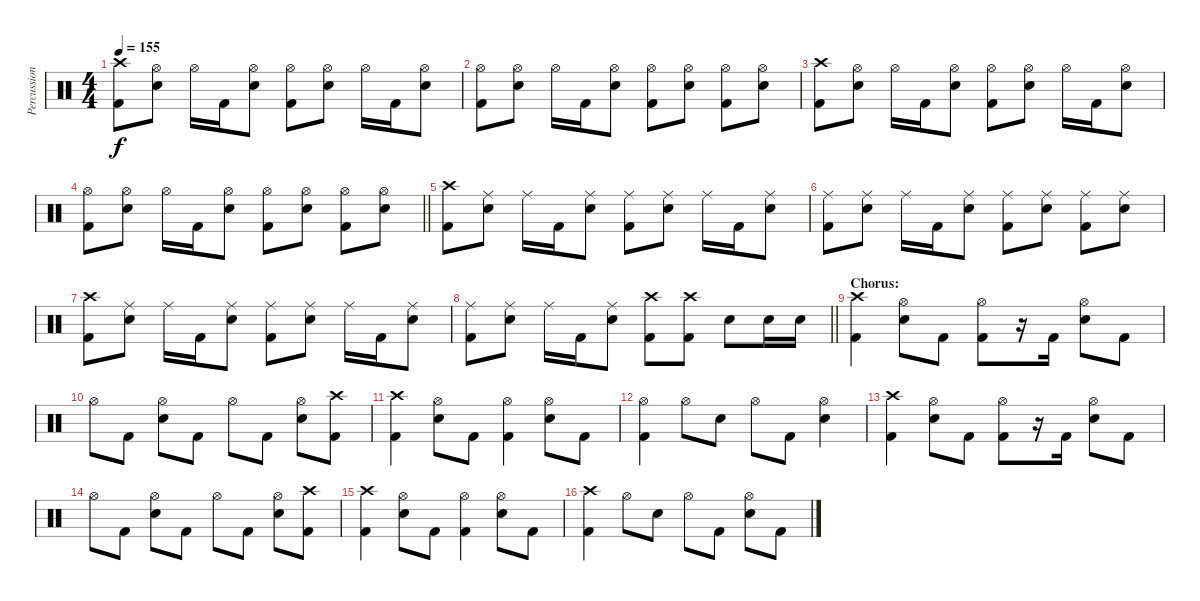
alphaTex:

\track ("Percussion" "Percussion") {instrument percussion}
\staff {score}
\articulation defaults
\ts (4 4)
\tempo 155
\clef neutral
\ks c
("Crash high (hit)" "Kick (hit) 2").8{dy f} ("Hi-Hat (open)" "Electric Snare (hit)").8 "Hi-Hat (open)".16 "Kick (hit) 2".16 ("Hi-Hat (open)" "Electric Snare (hit)").8 ("Hi-Hat (open)" "Kick (hit) 2").8 ("Hi-Hat (open)" "Electric Snare (hit)").8 "Hi-Hat (open)".16 "Kick (hit) 2".16 ("Hi-Hat (open)" "Electric Snare (hit)").8 |
("Hi-Hat (open)" "Kick (hit) 2").8 ("Hi-Hat (open)" "Electric Snare (hit)").8 "Hi-Hat (open)".16 "Kick (hit) 2".16 ("Hi-Hat (open)" "Electric Snare (hit)").8 ("Hi-Hat (open)" "Kick (hit) 2").8 ("Hi-Hat (open)" "Electric Snare (hit)").8 ("Hi-Hat (open)" "Kick (hit) 2").8 ("Hi-Hat (open)" "Electric Snare (hit)").8 |
("Crash high (hit)" "Kick (hit) 2").8 ("Hi-Hat (open)" "Electric Snare (hit)").8 "Hi-Hat (open)".16 "Kick (hit) 2".16 ("Hi-Hat (open)" "Electric Snare (hit)").8 ("Hi-Hat (open)" "Kick (hit) 2").8 ("Hi-Hat (open)" "Electric Snare (hit)").8 "Hi-Hat (open)".16 "Kick (hit) 2".16 ("Hi-Hat (open)" "Electric Snare (hit)").8 |
\barLineRight lightlight
("Hi-Hat (open)" "Kick (hit) 2").8 ("Hi-Hat (open)" "Electric Snare (hit)").8 "Hi-Hat (open)".16 "Kick (hit) 2".16 ("Hi-Hat (open)" "Electric Snare (hit)").8 ("Hi-Hat (open)" "Kick (hit) 2").8 ("Hi-Hat (open)" "Electric Snare (hit)").8 ("Hi-Hat (open)" "Kick (hit) 2").8 ("Hi-Hat (open)" "Electric Snare (hit)").8 |
("Crash high (hit)" "Kick (hit) 2").8 ("Ride (middle)" "Electric Snare (hit)").8 "Ride (middle)".16 "Kick (hit) 2".16 ("Ride (middle)" "Electric Snare (hit)").8 ("Ride (middle)" "Kick (hit) 2").8 ("Ride (middle)" "Electric Snare (hit)").8 "Ride (middle)".16 "Kick (hit) 2".16 ("Ride (middle)" "Electric Snare (hit)").8 |
("Ride (middle)" "Kick (hit) 2").8 ("Ride (middle)" "Electric Snare (hit)").8 "Ride (middle)".16 "Kick (hit) 2".16 ("Ride (middle)" "Electric Snare (hit)").8 ("Ride (middle)" "Kick (hit) 2").8 ("Ride (middle)" "Electric Snare (hit)").8 ("Ride (middle)" "Kick (hit) 2").8 ("Ride (middle)" "Electric Snare (hit)").8 |
("Crash high (hit)" "Kick (hit) 2").8 ("Ride (middle)" "Electric Snare (hit)").8 "Ride (middle)".16 "Kick (hit) 2".16 ("Ride (middle)" "Electric Snare (hit)").8 ("Ride (middle)" "Kick (hit) 2").8 ("Ride (middle)" "Electric Snare (hit)").8 "Ride (middle)".16 "Kick (hit) 2".16 ("Ride (middle)" "Electric Snare (hit)").8 |
\barLineRight lightlight
("Ride (middle)" "Kick (hit) 2").8 ("Ride (middle)" "Electric Snare (hit)").8 "Ride (middle)".16 "Kick (hit) 2".16 ("Ride (middle)" "Electric Snare (hit)").8 ("Crash high (hit)" "Kick (hit) 2").8 ("Crash high (hit)" "Kick (hit) 2").8 "Electric Snare (hit)".8 "Electric Snare (hit)".16 "Electric Snare (hit)".16 |
\section ("" "Chorus:")
("Crash high (hit)" "Kick (hit) 2").4 ("Hi-Hat (open)" "Electric Snare (hit)").8 "Kick (hit) 2".8 ("Hi-Hat (open)" "Kick (hit) 2").8 r.16 "Kick (hit) 2".16 ("Hi-Hat (open)" "Electric Snare (hit)").8 "Kick (hit) 2".8 |
"Hi-Hat (open)".8 "Kick (hit) 2".8 ("Hi-Hat (open)" "Electric Snare (hit)").8 "Kick (hit) 2".8 "Hi-Hat (open)".8 "Kick (hit) 2".8 ("Hi-Hat (open)" "Electric Snare (hit)").8 ("Crash high (hit)" "Kick (hit) 2").8 |
("Crash high (hit)" "Kick (hit) 2").4 ("Hi-Hat (open)" "Electric Snare (hit)").8 "Kick (hit) 2".8 ("Hi-Hat (open)" "Kick (hit) 2").4 ("Hi-Hat (open)" "Electric Snare (hit)").8 "Kick (hit) 2".8 |
("Hi-Hat (open)" "Kick (hit) 2").4 "Hi-Hat (open)".8 "Electric Snare (hit)".8 "Hi-Hat (open)".8 "Kick (hit) 2".8 ("Hi-Hat (open)" "Electric Snare (hit)").4 |
("Crash high (hit)" "Kick (hit) 2").4 ("Hi-Hat (open)" "Electric Snare (hit)").8 "Kick (hit) 2".8 ("Hi-Hat (open)" "Kick (hit) 2").8 r.16 "Kick (hit) 2".16 ("Hi-Hat (open)" "Electric Snare (hit)").8 "Kick (hit) 2".8 |
"Hi-Hat (open)".8 "Kick (hit) 2".8 ("Hi-Hat (open)" "Electric Snare (hit)").8 "Kick (hit) 2".8 "Hi-Hat (open)".8 "Kick (hit) 2".8 ("Hi-Hat (open)" "Electric Snare (hit)").8 ("Crash high (hit)" "Kick (hit) 2").8 |
("Crash high (hit)" "Kick (hit) 2").4 ("Hi-Hat (open)" "Electric Snare (hit)").8 "Kick (hit) 2".8 ("Hi-Hat (open)" "Kick (hit) 2").4 ("Hi-Hat (open)" "Electric Snare (hit)").8 "Kick (hit) 2".8 |
("Crash high (hit)" "Kick (hit) 2").4 "Hi-Hat (open)".8 "Electric Snare (hit)".8 "Hi-Hat (open)".8 "Kick (hit) 2".8 ("Hi-Hat (open)" "Electric Snare (hit)").8 "Kick (hit) 2".8
